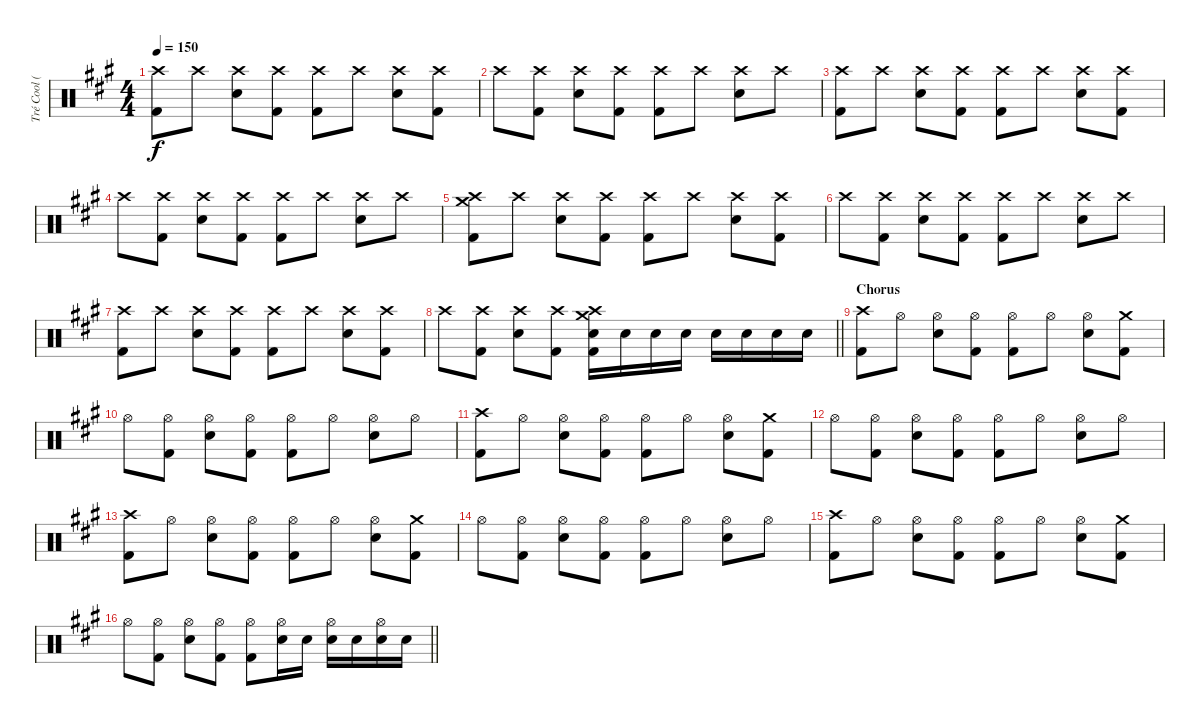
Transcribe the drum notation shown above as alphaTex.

\track ("Tré Cool (Drums)" "Tré Cool (") {instrument percussion}
\staff {score}
\articulation defaults
\ts (4 4)
\tempo 150
\clef neutral
\ks a
("Crash high (hit)" "Kick (hit) 2").8{dy f} "Crash high (hit)".8 ("Crash high (hit)" "Snare (hit) 2").8 ("Crash high (hit)" "Kick (hit) 2").8 ("Crash high (hit)" "Kick (hit) 2").8 "Crash high (hit)".8 ("Crash high (hit)" "Snare (hit) 2").8 ("Crash high (hit)" "Kick (hit) 2").8 |
"Crash high (hit)".8 ("Crash high (hit)" "Kick (hit) 2").8 ("Crash high (hit)" "Snare (hit) 2").8 ("Crash high (hit)" "Kick (hit) 2").8 ("Crash high (hit)" "Kick (hit) 2").8 "Crash high (hit)".8 ("Crash high (hit)" "Snare (hit) 2").8 "Crash high (hit)".8 |
("Crash high (hit)" "Kick (hit) 2").8 "Crash high (hit)".8 ("Crash high (hit)" "Snare (hit) 2").8 ("Crash high (hit)" "Kick (hit) 2").8 ("Crash high (hit)" "Kick (hit) 2").8 "Crash high (hit)".8 ("Crash high (hit)" "Snare (hit) 2").8 ("Crash high (hit)" "Kick (hit) 2").8 |
"Crash high (hit)".8 ("Crash high (hit)" "Kick (hit) 2").8 ("Crash high (hit)" "Snare (hit) 2").8 ("Crash high (hit)" "Kick (hit) 2").8 ("Crash high (hit)" "Kick (hit) 2").8 "Crash high (hit)".8 ("Crash high (hit)" "Snare (hit) 2").8 "Crash high (hit)".8 |
("Crash high (hit)" "Crash medium (hit)" "Kick (hit) 2").8 "Crash high (hit)".8 ("Crash high (hit)" "Snare (hit) 2").8 ("Crash high (hit)" "Kick (hit) 2").8 ("Crash high (hit)" "Kick (hit) 2").8 "Crash high (hit)".8 ("Crash high (hit)" "Snare (hit) 2").8 ("Crash high (hit)" "Kick (hit) 2").8 |
"Crash high (hit)".8 ("Crash high (hit)" "Kick (hit) 2").8 ("Crash high (hit)" "Snare (hit) 2").8 ("Crash high (hit)" "Kick (hit) 2").8 ("Crash high (hit)" "Kick (hit) 2").8 "Crash high (hit)".8 ("Crash high (hit)" "Snare (hit) 2").8 "Crash high (hit)".8 |
("Crash high (hit)" "Kick (hit) 2").8 "Crash high (hit)".8 ("Crash high (hit)" "Snare (hit) 2").8 ("Crash high (hit)" "Kick (hit) 2").8 ("Crash high (hit)" "Kick (hit) 2").8 "Crash high (hit)".8 ("Crash high (hit)" "Snare (hit) 2").8 ("Crash high (hit)" "Kick (hit) 2").8 |
\barLineRight lightlight "Crash high (hit)".8
("Crash high (hit)" "Kick (hit) 2").8 ("Crash high (hit)" "Snare (hit) 2").8 ("Crash high (hit)" "Kick (hit) 2").8 ("Crash high (hit)" "Crash medium (hit)" "Snare (hit) 2" "Kick (hit) 2").16 "Snare (hit) 2".16 "Snare (hit) 2".16 "Snare (hit) 2".16 "Snare (hit) 2".16 "Snare (hit) 2".16 "Snare (hit) 2".16 "Snare (hit) 2".16 |
\section ("" "Chorus")
("Crash high (hit)" "Kick (hit) 2").8 "Hi-Hat (open)".8 ("Hi-Hat (open)" "Snare (hit) 2").8 ("Hi-Hat (open)" "Kick (hit) 2").8 ("Hi-Hat (open)" "Kick (hit) 2").8 "Hi-Hat (open)".8 ("Hi-Hat (open)" "Snare (hit) 2").8 ("Crash medium (hit)" "Kick (hit) 2").8 |
"Hi-Hat (open)".8 ("Hi-Hat (open)" "Kick (hit) 2").8 ("Hi-Hat (open)" "Snare (hit) 2").8 ("Hi-Hat (open)" "Kick (hit) 2").8 ("Hi-Hat (open)" "Kick (hit) 2").8 "Hi-Hat (open)".8 ("Hi-Hat (open)" "Snare (hit) 2").8 "Hi-Hat (open)".8 |
("Crash high (hit)" "Kick (hit) 2").8 "Hi-Hat (open)".8 ("Hi-Hat (open)" "Snare (hit) 2").8 ("Hi-Hat (open)" "Kick (hit) 2").8 ("Hi-Hat (open)" "Kick (hit) 2").8 "Hi-Hat (open)".8 ("Hi-Hat (open)" "Snare (hit) 2").8 ("Crash medium (hit)" "Kick (hit) 2").8 |
"Hi-Hat (open)".8 ("Hi-Hat (open)" "Kick (hit) 2").8 ("Hi-Hat (open)" "Snare (hit) 2").8 ("Hi-Hat (open)" "Kick (hit) 2").8 ("Hi-Hat (open)" "Kick (hit) 2").8 "Hi-Hat (open)".8 ("Hi-Hat (open)" "Snare (hit) 2").8 "Hi-Hat (open)".8 |
("Crash high (hit)" "Kick (hit) 2").8 "Hi-Hat (open)".8 ("Hi-Hat (open)" "Snare (hit) 2").8 ("Hi-Hat (open)" "Kick (hit) 2").8 ("Hi-Hat (open)" "Kick (hit) 2").8 "Hi-Hat (open)".8 ("Hi-Hat (open)" "Snare (hit) 2").8 ("Crash medium (hit)" "Kick (hit) 2").8 |
"Hi-Hat (open)".8 ("Hi-Hat (open)" "Kick (hit) 2").8 ("Hi-Hat (open)" "Snare (hit) 2").8 ("Hi-Hat (open)" "Kick (hit) 2").8 ("Hi-Hat (open)" "Kick (hit) 2").8 "Hi-Hat (open)".8 ("Hi-Hat (open)" "Snare (hit) 2").8 "Hi-Hat (open)".8 |
("Crash high (hit)" "Kick (hit) 2").8 "Hi-Hat (open)".8 ("Hi-Hat (open)" "Snare (hit) 2").8 ("Hi-Hat (open)" "Kick (hit) 2").8 ("Hi-Hat (open)" "Kick (hit) 2").8 "Hi-Hat (open)".8 ("Hi-Hat (open)" "Snare (hit) 2").8 ("Crash medium (hit)" "Kick (hit) 2").8 |
\barLineRight lightlight "Hi-Hat (open)".8
("Hi-Hat (open)" "Kick (hit) 2").8 ("Hi-Hat (open)" "Snare (hit) 2").8 ("Hi-Hat (open)" "Kick (hit) 2").8 ("Hi-Hat (open)" "Kick (hit) 2").8 ("Hi-Hat (open)" "Snare (hit) 2").16 "Snare (hit) 2".16 ("Hi-Hat (open)" "Snare (hit) 2").16 "Snare (hit) 2".16 ("Hi-Hat (open)" "Snare (hit) 2").16 "Snare (hit) 2".16
